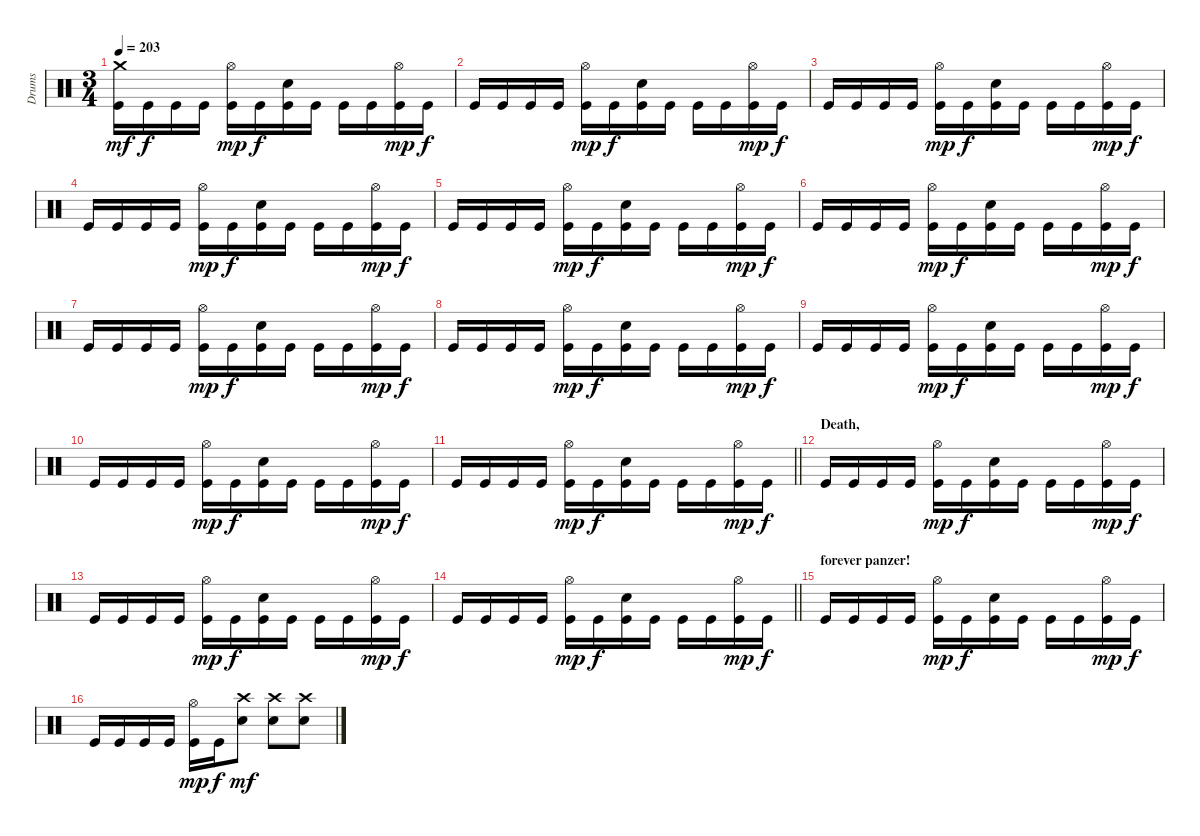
\track ("Drums" "Drums") {instrument percussion}
\staff {score}
\articulation defaults
\ts (3 4)
\tempo 203
\clef neutral
\ks c
("Crash medium (hit)" "Kick (hit)").16{dy mf} "Kick (hit)".16{dy f} "Kick (hit)".16 "Kick (hit)".16 ("Hi-Hat (open)" "Kick (hit)").16{dy mp} "Kick (hit)".16{dy f} ("Electric Snare (hit)" "Kick (hit)").16 "Kick (hit)".16 "Kick (hit)".16 "Kick (hit)".16 ("Hi-Hat (open)" "Kick (hit)").16{dy mp} "Kick (hit)".16{dy f} |
"Kick (hit)".16 "Kick (hit)".16 "Kick (hit)".16 "Kick (hit)".16 ("Hi-Hat (open)" "Kick (hit)").16{dy mp} "Kick (hit)".16{dy f} ("Electric Snare (hit)" "Kick (hit)").16 "Kick (hit)".16 "Kick (hit)".16 "Kick (hit)".16 ("Hi-Hat (open)" "Kick (hit)").16{dy mp} "Kick (hit)".16{dy f} |
"Kick (hit)".16 "Kick (hit)".16 "Kick (hit)".16 "Kick (hit)".16 ("Hi-Hat (open)" "Kick (hit)").16{dy mp} "Kick (hit)".16{dy f} ("Electric Snare (hit)" "Kick (hit)").16 "Kick (hit)".16 "Kick (hit)".16 "Kick (hit)".16 ("Hi-Hat (open)" "Kick (hit)").16{dy mp} "Kick (hit)".16{dy f} |
"Kick (hit)".16 "Kick (hit)".16 "Kick (hit)".16 "Kick (hit)".16 ("Hi-Hat (open)" "Kick (hit)").16{dy mp} "Kick (hit)".16{dy f} ("Electric Snare (hit)" "Kick (hit)").16 "Kick (hit)".16 "Kick (hit)".16 "Kick (hit)".16 ("Hi-Hat (open)" "Kick (hit)").16{dy mp} "Kick (hit)".16{dy f} |
"Kick (hit)".16 "Kick (hit)".16 "Kick (hit)".16 "Kick (hit)".16 ("Hi-Hat (open)" "Kick (hit)").16{dy mp} "Kick (hit)".16{dy f} ("Electric Snare (hit)" "Kick (hit)").16 "Kick (hit)".16 "Kick (hit)".16 "Kick (hit)".16 ("Hi-Hat (open)" "Kick (hit)").16{dy mp} "Kick (hit)".16{dy f} |
"Kick (hit)".16 "Kick (hit)".16 "Kick (hit)".16 "Kick (hit)".16 ("Hi-Hat (open)" "Kick (hit)").16{dy mp} "Kick (hit)".16{dy f} ("Electric Snare (hit)" "Kick (hit)").16 "Kick (hit)".16 "Kick (hit)".16 "Kick (hit)".16 ("Hi-Hat (open)" "Kick (hit)").16{dy mp} "Kick (hit)".16{dy f} |
"Kick (hit)".16 "Kick (hit)".16 "Kick (hit)".16 "Kick (hit)".16 ("Hi-Hat (open)" "Kick (hit)").16{dy mp} "Kick (hit)".16{dy f} ("Electric Snare (hit)" "Kick (hit)").16 "Kick (hit)".16 "Kick (hit)".16 "Kick (hit)".16 ("Hi-Hat (open)" "Kick (hit)").16{dy mp} "Kick (hit)".16{dy f} |
"Kick (hit)".16 "Kick (hit)".16 "Kick (hit)".16 "Kick (hit)".16 ("Hi-Hat (open)" "Kick (hit)").16{dy mp} "Kick (hit)".16{dy f} ("Electric Snare (hit)" "Kick (hit)").16 "Kick (hit)".16 "Kick (hit)".16 "Kick (hit)".16 ("Hi-Hat (open)" "Kick (hit)").16{dy mp} "Kick (hit)".16{dy f} |
"Kick (hit)".16 "Kick (hit)".16 "Kick (hit)".16 "Kick (hit)".16 ("Hi-Hat (open)" "Kick (hit)").16{dy mp} "Kick (hit)".16{dy f} ("Electric Snare (hit)" "Kick (hit)").16 "Kick (hit)".16 "Kick (hit)".16 "Kick (hit)".16 ("Hi-Hat (open)" "Kick (hit)").16{dy mp} "Kick (hit)".16{dy f} |
"Kick (hit)".16 "Kick (hit)".16 "Kick (hit)".16 "Kick (hit)".16 ("Hi-Hat (open)" "Kick (hit)").16{dy mp} "Kick (hit)".16{dy f} ("Electric Snare (hit)" "Kick (hit)").16 "Kick (hit)".16 "Kick (hit)".16 "Kick (hit)".16 ("Hi-Hat (open)" "Kick (hit)").16{dy mp} "Kick (hit)".16{dy f} |
\barLineRight lightlight "Kick (hit)".16 "Kick (hit)".16 "Kick (hit)".16 "Kick (hit)".16
("Hi-Hat (open)" "Kick (hit)").16{dy mp} "Kick (hit)".16{dy f} ("Electric Snare (hit)" "Kick (hit)").16 "Kick (hit)".16 "Kick (hit)".16 "Kick (hit)".16 ("Hi-Hat (open)" "Kick (hit)").16{dy mp} "Kick (hit)".16{dy f} |
\section ("" "Death,")
"Kick (hit)".16 "Kick (hit)".16 "Kick (hit)".16 "Kick (hit)".16 ("Hi-Hat (open)" "Kick (hit)").16{dy mp} "Kick (hit)".16{dy f} ("Electric Snare (hit)" "Kick (hit)").16 "Kick (hit)".16 "Kick (hit)".16 "Kick (hit)".16 ("Hi-Hat (open)" "Kick (hit)").16{dy mp} "Kick (hit)".16{dy f} |
"Kick (hit)".16 "Kick (hit)".16 "Kick (hit)".16 "Kick (hit)".16 ("Hi-Hat (open)" "Kick (hit)").16{dy mp} "Kick (hit)".16{dy f} ("Electric Snare (hit)" "Kick (hit)").16 "Kick (hit)".16 "Kick (hit)".16 "Kick (hit)".16 ("Hi-Hat (open)" "Kick (hit)").16{dy mp} "Kick (hit)".16{dy f} |
\barLineRight lightlight "Kick (hit)".16 "Kick (hit)".16 "Kick (hit)".16 "Kick (hit)".16
("Hi-Hat (open)" "Kick (hit)").16{dy mp} "Kick (hit)".16{dy f} ("Electric Snare (hit)" "Kick (hit)").16 "Kick (hit)".16 "Kick (hit)".16 "Kick (hit)".16 ("Hi-Hat (open)" "Kick (hit)").16{dy mp} "Kick (hit)".16{dy f} |
\section ("" "forever panzer!")
"Kick (hit)".16 "Kick (hit)".16 "Kick (hit)".16 "Kick (hit)".16 ("Hi-Hat (open)" "Kick (hit)").16{dy mp} "Kick (hit)".16{dy f} ("Electric Snare (hit)" "Kick (hit)").16 "Kick (hit)".16 "Kick (hit)".16 "Kick (hit)".16 ("Hi-Hat (open)" "Kick (hit)").16{dy mp} "Kick (hit)".16{dy f} |
"Kick (hit)".16 "Kick (hit)".16 "Kick (hit)".16 "Kick (hit)".16 ("Hi-Hat (open)" "Kick (hit)").16{dy mp} "Kick (hit)".16{dy f} ("Crash high (hit)" "Electric Snare (hit)").8{dy mf} ("Crash high (hit)" "Electric Snare (hit)").8 ("Crash high (hit)" "Electric Snare (hit)").8
